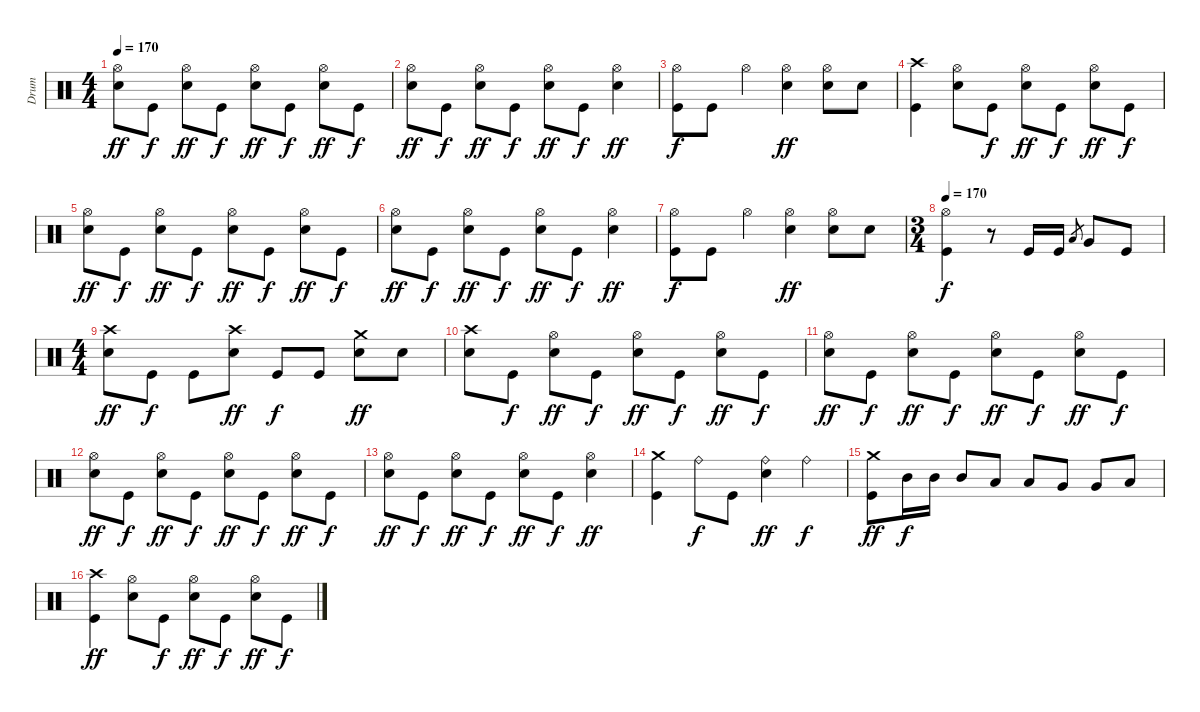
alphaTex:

\track ("Drum" "Drum") {instrument percussion}
\staff {score}
\articulation defaults
\ts (4 4)
\tempo 170
\clef neutral
\ks c
("Electric Snare (hit)" "Hi-Hat (open)").8{dy ff} "Kick (hit)".8{dy f} ("Electric Snare (hit)" "Hi-Hat (open)").8{dy ff} "Kick (hit)".8{dy f} ("Electric Snare (hit)" "Hi-Hat (open)").8{dy ff} "Kick (hit)".8{dy f} ("Electric Snare (hit)" "Hi-Hat (open)").8{dy ff} "Kick (hit)".8{dy f} |
("Electric Snare (hit)" "Hi-Hat (open)").8{dy ff} "Kick (hit)".8{dy f} ("Electric Snare (hit)" "Hi-Hat (open)").8{dy ff} "Kick (hit)".8{dy f} ("Electric Snare (hit)" "Hi-Hat (open)").8{dy ff} "Kick (hit)".8{dy f} ("Electric Snare (hit)" "Hi-Hat (open)").4{dy ff} |
("Kick (hit)" "Hi-Hat (open)").8{dy f} "Kick (hit)".8 "Hi-Hat (open)".4 ("Electric Snare (hit)" "Hi-Hat (open)").4{dy ff} ("Electric Snare (hit)" "Hi-Hat (open)").8 "Electric Snare (hit)".8 |
("Kick (hit)" "Crash high (hit)").4 ("Electric Snare (hit)" "Hi-Hat (open)").8 "Kick (hit)".8{dy f} ("Electric Snare (hit)" "Hi-Hat (open)").8{dy ff} "Kick (hit)".8{dy f} ("Electric Snare (hit)" "Hi-Hat (open)").8{dy ff} "Kick (hit)".8{dy f} |
("Electric Snare (hit)" "Hi-Hat (open)").8{dy ff} "Kick (hit)".8{dy f} ("Electric Snare (hit)" "Hi-Hat (open)").8{dy ff} "Kick (hit)".8{dy f} ("Electric Snare (hit)" "Hi-Hat (open)").8{dy ff} "Kick (hit)".8{dy f} ("Electric Snare (hit)" "Hi-Hat (open)").8{dy ff} "Kick (hit)".8{dy f} |
("Electric Snare (hit)" "Hi-Hat (open)").8{dy ff} "Kick (hit)".8{dy f} ("Electric Snare (hit)" "Hi-Hat (open)").8{dy ff} "Kick (hit)".8{dy f} ("Electric Snare (hit)" "Hi-Hat (open)").8{dy ff} "Kick (hit)".8{dy f} ("Electric Snare (hit)" "Hi-Hat (open)").4{dy ff} |
("Kick (hit)" "Hi-Hat (open)").8{dy f} "Kick (hit)".8 "Hi-Hat (open)".4 ("Electric Snare (hit)" "Hi-Hat (open)").4{dy ff} ("Electric Snare (hit)" "Hi-Hat (open)").8 "Electric Snare (hit)".8 |
\ts (3 4)
\tempo 170
("Kick (hit)" "Hi-Hat (open)").4{dy f} r.8 "Kick (hit)".16 "Kick (hit)".16 "Low Tom (hit)".8{gr} "Very Low Tom (hit)".8 "Kick (hit)".8 |
\ts (4 4)
("Electric Snare (hit)" "Crash high (hit)").8{dy ff} "Kick (hit)".8{dy f} "Kick (hit)".8 ("Electric Snare (hit)" "Crash high (hit)").8{dy ff} "Kick (hit)".8{dy f} "Kick (hit)".8 ("Electric Snare (hit)" "Crash medium (hit)").8{dy ff} "Electric Snare (hit)".8 |
("Electric Snare (hit)" "Crash high (hit)").8 "Kick (hit)".8{dy f} ("Electric Snare (hit)" "Hi-Hat (open)").8{dy ff} "Kick (hit)".8{dy f} ("Electric Snare (hit)" "Hi-Hat (open)").8{dy ff} "Kick (hit)".8{dy f} ("Electric Snare (hit)" "Hi-Hat (open)").8{dy ff} "Kick (hit)".8{dy f} |
("Electric Snare (hit)" "Hi-Hat (open)").8{dy ff} "Kick (hit)".8{dy f} ("Electric Snare (hit)" "Hi-Hat (open)").8{dy ff} "Kick (hit)".8{dy f} ("Electric Snare (hit)" "Hi-Hat (open)").8{dy ff} "Kick (hit)".8{dy f} ("Electric Snare (hit)" "Hi-Hat (open)").8{dy ff} "Kick (hit)".8{dy f} |
("Electric Snare (hit)" "Hi-Hat (open)").8{dy ff} "Kick (hit)".8{dy f} ("Electric Snare (hit)" "Hi-Hat (open)").8{dy ff} "Kick (hit)".8{dy f} ("Electric Snare (hit)" "Hi-Hat (open)").8{dy ff} "Kick (hit)".8{dy f} ("Electric Snare (hit)" "Hi-Hat (open)").8{dy ff} "Kick (hit)".8{dy f} |
("Electric Snare (hit)" "Hi-Hat (open)").8{dy ff} "Kick (hit)".8{dy f} ("Electric Snare (hit)" "Hi-Hat (open)").8{dy ff} "Kick (hit)".8{dy f} ("Electric Snare (hit)" "Hi-Hat (open)").8{dy ff} "Kick (hit)".8{dy f} ("Electric Snare (hit)" "Hi-Hat (open)").4{dy ff} |
("Kick (hit)" "Crash medium (hit)").4 "Ride (bell)".8{dy f} "Kick (hit)".8 ("Electric Snare (hit)" "Ride (bell)").4{dy ff} "Ride (bell)".4{dy f} |
("Kick (hit)" "Crash medium (hit)").8{dy ff} "Mid Tom (hit)".16{dy f} "Mid Tom (hit)".16 "Mid Tom (hit)".8 "Low Tom (hit)".8 "Low Tom (hit)".8 "Very Low Tom (hit)".8 "Very Low Tom (hit)".8 "Low Floor Tom (hit)".8 |
("Kick (hit)" "Crash high (hit)").4{dy ff} ("Electric Snare (hit)" "Hi-Hat (open)").8 "Kick (hit)".8{dy f} ("Electric Snare (hit)" "Hi-Hat (open)").8{dy ff} "Kick (hit)".8{dy f} ("Electric Snare (hit)" "Hi-Hat (open)").8{dy ff} "Kick (hit)".8{dy f}
